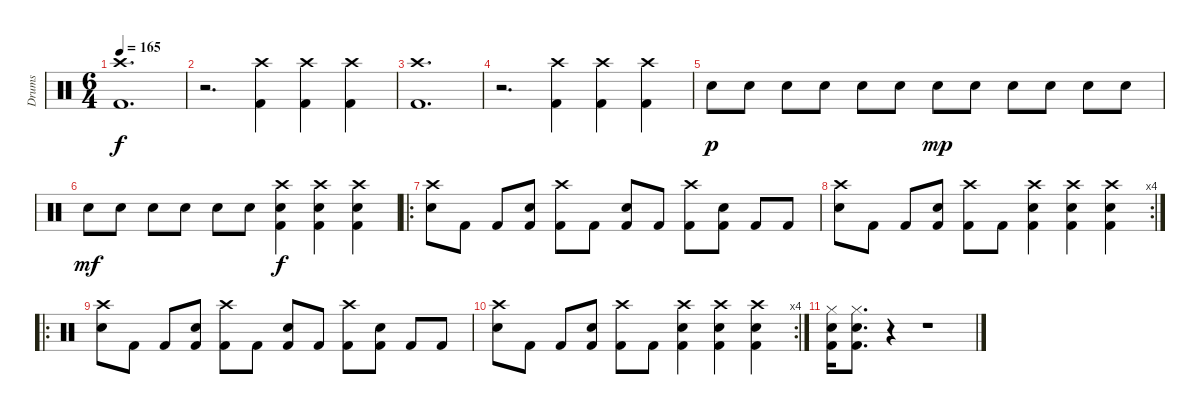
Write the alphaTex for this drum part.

\track ("Drums" "Drums") {instrument percussion}
\staff {score}
\articulation defaults
\ts (6 4)
\tempo 165
\clef neutral
\ks c
("Crash high (hit)" "Kick (hit) 2").1{d dy f} |
r.2{d} ("Crash high (hit)" "Kick (hit) 2").4 ("Crash high (hit)" "Kick (hit) 2").4 ("Crash high (hit)" "Kick (hit) 2").4 |
("Crash high (hit)" "Kick (hit) 2").1{d} |
r.2{d} ("Crash high (hit)" "Kick (hit) 2").4 ("Crash high (hit)" "Kick (hit) 2").4 ("Crash high (hit)" "Kick (hit) 2").4 |
"Snare (hit) 2".8{dy p} "Snare (hit) 2".8 "Electric Snare (hit)".8 "Electric Snare (hit)".8 "Electric Snare (hit)".8 "Electric Snare (hit)".8 "Snare (hit) 2".8{dy mp} "Snare (hit) 2".8 "Electric Snare (hit)".8 "Electric Snare (hit)".8 "Electric Snare (hit)".8 "Electric Snare (hit)".8 |
"Snare (hit) 2".8{dy mf} "Snare (hit) 2".8 "Electric Snare (hit)".8 "Electric Snare (hit)".8 "Electric Snare (hit)".8 "Electric Snare (hit)".8 ("Crash high (hit)" "Electric Snare (hit)" "Kick (hit) 2").4{dy f} ("Crash high (hit)" "Electric Snare (hit)" "Kick (hit) 2").4 ("Crash high (hit)" "Electric Snare (hit)" "Kick (hit) 2").4 |
\ro
("Crash high (hit)" "Electric Snare (hit)").8 "Kick (hit) 2".8 "Kick (hit) 2".8 ("Snare (hit) 2" "Kick (hit) 2").8 ("Crash high (hit)" "Kick (hit) 2").8 "Kick (hit) 2".8 ("Electric Snare (hit)" "Kick (hit) 2").8 "Kick (hit) 2".8 ("Crash high (hit)" "Kick (hit) 2").8 ("Snare (hit) 2" "Kick (hit) 2").8 "Kick (hit) 2".8 "Kick (hit) 2".8 |
\rc 4
("Crash high (hit)" "Electric Snare (hit)").8 "Kick (hit) 2".8 "Kick (hit) 2".8 ("Snare (hit) 2" "Kick (hit) 2").8 ("Crash high (hit)" "Kick (hit) 2").8 "Kick (hit) 2".8 ("Crash high (hit)" "Electric Snare (hit)" "Kick (hit) 2").4 ("Crash high (hit)" "Electric Snare (hit)" "Kick (hit) 2").4 ("Crash high (hit)" "Electric Snare (hit)" "Kick (hit) 2").4 |
\ro
("Crash high (hit)" "Electric Snare (hit)").8 "Kick (hit) 2".8 "Kick (hit) 2".8 ("Snare (hit) 2" "Kick (hit) 2").8 ("Crash high (hit)" "Kick (hit) 2").8 "Kick (hit) 2".8 ("Electric Snare (hit)" "Kick (hit) 2").8 "Kick (hit) 2".8 ("Crash high (hit)" "Kick (hit) 2").8 ("Snare (hit) 2" "Kick (hit) 2").8 "Kick (hit) 2".8 "Kick (hit) 2".8 |
\rc 4
("Crash high (hit)" "Electric Snare (hit)").8 "Kick (hit) 2".8 "Kick (hit) 2".8 ("Snare (hit) 2" "Kick (hit) 2").8 ("Crash high (hit)" "Kick (hit) 2").8 "Kick (hit) 2".8 ("Crash high (hit)" "Electric Snare (hit)" "Kick (hit) 2").4 ("Crash high (hit)" "Electric Snare (hit)" "Kick (hit) 2").4 ("Crash high (hit)" "Electric Snare (hit)" "Kick (hit) 2").4 |
("Hi-Hat (closed)" "Electric Snare (hit)" "Kick (hit) 2").16 ("Hi-Hat (closed)" "Electric Snare (hit)" "Kick (hit) 2").8{d} r.4 r.1
